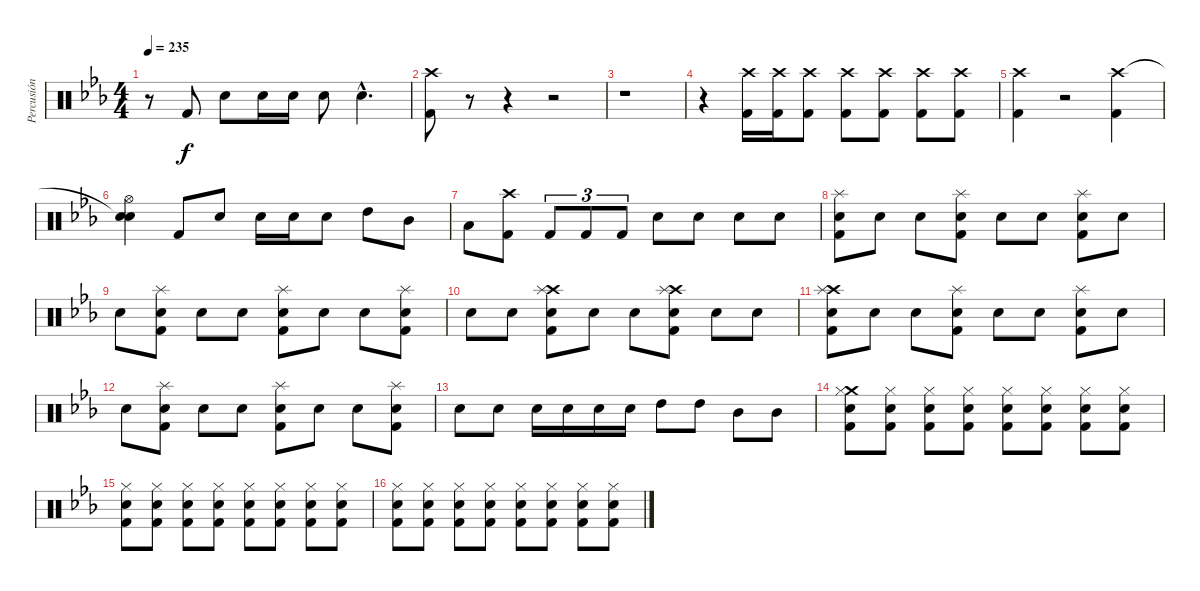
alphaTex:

\track ("Percusión" "Percusión") {instrument percussion}
\staff {score}
\articulation defaults
\ts (4 4)
\tempo 235
\clef neutral
\ks eb
r.8{dy f} "Kick (hit) 2".8 "Electric Snare (hit)".8 "Electric Snare (hit)".16 "Electric Snare (hit)".16 "Electric Snare (hit)".8 "Electric Snare (hit)"{hac}.4{d} |
("Crash high (hit)" "Kick (hit) 2").8 r.8 r.4 r.2 |
r.1 |
r.4 ("Crash high (hit)" "Kick (hit) 2").16 ("Crash high (hit)" "Kick (hit) 2").16 ("Crash high (hit)" "Kick (hit) 2").8 ("Crash high (hit)" "Kick (hit) 2").8 ("Crash high (hit)" "Kick (hit) 2").8 ("Crash high (hit)" "Kick (hit) 2").8 ("Crash high (hit)" "Kick (hit) 2").8 |
("Crash high (hit)" "Kick (hit) 2").4 r.2 ("Crash high (hit)" "Kick (hit) 2").4 |
("Snare (hit)"{t} "Hi-Hat (open)" "Snare (hit)").4 "Kick (hit) 2".8 "Electric Snare (hit)".8 "Electric Snare (hit)".16 "Electric Snare (hit)".16 "Electric Snare (hit)".8 "High Tom (hit)".8 "Mid Tom (hit)".8 |
"Low Tom (hit)".8 ("Crash high (hit)" "Kick (hit) 2").8 "Kick (hit) 2".8{tu (3 2)} "Kick (hit) 2".8{tu (3 2)} "Kick (hit) 2".8{tu (3 2)} "Electric Snare (hit)".8 "Electric Snare (hit)".8 "Electric Snare (hit)".8 "Electric Snare (hit)".8 |
("Splash (hit)" "Electric Snare (hit)" "Kick (hit) 2").8 "Electric Snare (hit)".8 "Electric Snare (hit)".8 ("Splash (hit)" "Electric Snare (hit)" "Kick (hit) 2").8 "Electric Snare (hit)".8 "Electric Snare (hit)".8 ("Splash (hit)" "Electric Snare (hit)" "Kick (hit) 2").8 "Electric Snare (hit)".8 |
"Electric Snare (hit)".8 ("Splash (hit)" "Electric Snare (hit)" "Kick (hit) 2").8 "Electric Snare (hit)".8 "Electric Snare (hit)".8 ("Splash (hit)" "Electric Snare (hit)" "Kick (hit) 2").8 "Electric Snare (hit)".8 "Electric Snare (hit)".8 ("Splash (hit)" "Electric Snare (hit)" "Kick (hit) 2").8 |
"Electric Snare (hit)".8 "Electric Snare (hit)".8 ("Crash high (hit)" "Splash (hit)" "Electric Snare (hit)" "Kick (hit) 2").8 "Electric Snare (hit)".8 "Electric Snare (hit)".8 ("Crash high (hit)" "Splash (hit)" "Electric Snare (hit)" "Kick (hit) 2").8 "Electric Snare (hit)".8 "Electric Snare (hit)".8 |
("Crash high (hit)" "Splash (hit)" "Electric Snare (hit)" "Kick (hit) 2").8 "Electric Snare (hit)".8 "Electric Snare (hit)".8 ("Splash (hit)" "Electric Snare (hit)" "Kick (hit) 2").8 "Electric Snare (hit)".8 "Electric Snare (hit)".8 ("Splash (hit)" "Electric Snare (hit)" "Kick (hit) 2").8 "Electric Snare (hit)".8 |
"Electric Snare (hit)".8 ("Splash (hit)" "Electric Snare (hit)" "Kick (hit) 2").8 "Electric Snare (hit)".8 "Electric Snare (hit)".8 ("Splash (hit)" "Electric Snare (hit)" "Kick (hit) 2").8 "Electric Snare (hit)".8 "Electric Snare (hit)".8 ("Splash (hit)" "Electric Snare (hit)" "Kick (hit) 2").8 |
"Electric Snare (hit)".8 "Electric Snare (hit)".8 "Electric Snare (hit)".16 "Electric Snare (hit)".16 "Electric Snare (hit)".16 "Electric Snare (hit)".16 "High Tom (hit)".8 "High Tom (hit)".8 "Mid Tom (hit)".8 "Mid Tom (hit)".8 |
("Crash medium (hit)" "Hi-Hat (closed)" "Electric Snare (hit)" "Kick (hit) 2").8 ("Hi-Hat (closed)" "Electric Snare (hit)" "Kick (hit) 2").8 ("Hi-Hat (closed)" "Electric Snare (hit)" "Kick (hit) 2").8 ("Hi-Hat (closed)" "Electric Snare (hit)" "Kick (hit) 2").8 ("Hi-Hat (closed)" "Electric Snare (hit)" "Kick (hit) 2").8 ("Hi-Hat (closed)" "Electric Snare (hit)" "Kick (hit) 2").8 ("Hi-Hat (closed)" "Electric Snare (hit)" "Kick (hit) 2").8 ("Hi-Hat (closed)" "Electric Snare (hit)" "Kick (hit) 2").8 |
("Hi-Hat (closed)" "Electric Snare (hit)" "Kick (hit) 2").8 ("Hi-Hat (closed)" "Electric Snare (hit)" "Kick (hit) 2").8 ("Hi-Hat (closed)" "Electric Snare (hit)" "Kick (hit) 2").8 ("Hi-Hat (closed)" "Electric Snare (hit)" "Kick (hit) 2").8 ("Hi-Hat (closed)" "Electric Snare (hit)" "Kick (hit) 2").8 ("Hi-Hat (closed)" "Electric Snare (hit)" "Kick (hit) 2").8 ("Hi-Hat (closed)" "Electric Snare (hit)" "Kick (hit) 2").8 ("Hi-Hat (closed)" "Electric Snare (hit)" "Kick (hit) 2").8 |
("Hi-Hat (closed)" "Electric Snare (hit)" "Kick (hit) 2").8 ("Hi-Hat (closed)" "Electric Snare (hit)" "Kick (hit) 2").8 ("Hi-Hat (closed)" "Electric Snare (hit)" "Kick (hit) 2").8 ("Hi-Hat (closed)" "Electric Snare (hit)" "Kick (hit) 2").8 ("Hi-Hat (closed)" "Electric Snare (hit)" "Kick (hit) 2").8 ("Hi-Hat (closed)" "Electric Snare (hit)" "Kick (hit) 2").8 ("Hi-Hat (closed)" "Electric Snare (hit)" "Kick (hit) 2").8 ("Hi-Hat (closed)" "Electric Snare (hit)" "Kick (hit) 2").8
